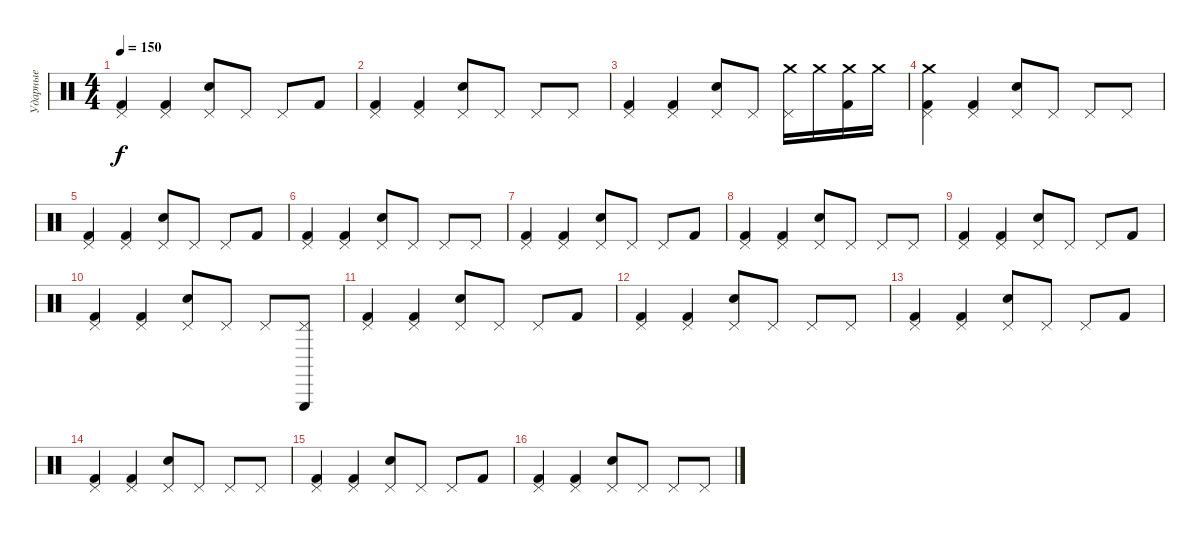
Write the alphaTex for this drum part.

\track ("Ударные" "Ударные") {instrument percussion}
\staff {score}
\articulation defaults
\ts (4 4)
\tempo 150
\clef neutral
\ks c
("Pedal Hi-Hat (hit)" "Kick (hit) 2").4{dy f} ("Pedal Hi-Hat (hit)" "Kick (hit) 2").4 ("Pedal Hi-Hat (hit)" "Snare (hit) 2").8 "Pedal Hi-Hat (hit)".8 "Pedal Hi-Hat (hit)".8 "Kick (hit) 2".8 |
("Pedal Hi-Hat (hit)" "Kick (hit) 2").4 ("Pedal Hi-Hat (hit)" "Kick (hit) 2").4 ("Pedal Hi-Hat (hit)" "Snare (hit) 2").8 "Pedal Hi-Hat (hit)".8 "Pedal Hi-Hat (hit)".8 "Pedal Hi-Hat (hit)".8 |
("Pedal Hi-Hat (hit)" "Kick (hit) 2").4 ("Pedal Hi-Hat (hit)" "Kick (hit) 2").4 ("Pedal Hi-Hat (hit)" "Snare (hit) 2").8 "Pedal Hi-Hat (hit)".8 ("Crash medium (hit)" "Pedal Hi-Hat (hit)").16 "Crash medium (hit)".16 ("Crash medium (hit)" "Kick (hit) 2").16 "Crash medium (hit)".16 |
("Crash medium (hit)" "Pedal Hi-Hat (hit)" "Kick (hit) 2").4 ("Pedal Hi-Hat (hit)" "Kick (hit) 2").4 ("Pedal Hi-Hat (hit)" "Snare (hit) 2").8 "Pedal Hi-Hat (hit)".8 "Pedal Hi-Hat (hit)".8 "Pedal Hi-Hat (hit)".8 |
("Pedal Hi-Hat (hit)" "Kick (hit) 2").4 ("Pedal Hi-Hat (hit)" "Kick (hit) 2").4 ("Pedal Hi-Hat (hit)" "Snare (hit) 2").8 "Pedal Hi-Hat (hit)".8 "Pedal Hi-Hat (hit)".8 "Kick (hit) 2".8 |
("Pedal Hi-Hat (hit)" "Kick (hit) 2").4 ("Pedal Hi-Hat (hit)" "Kick (hit) 2").4 ("Pedal Hi-Hat (hit)" "Snare (hit) 2").8 "Pedal Hi-Hat (hit)".8 "Pedal Hi-Hat (hit)".8 "Pedal Hi-Hat (hit)".8 |
("Pedal Hi-Hat (hit)" "Kick (hit) 2").4 ("Pedal Hi-Hat (hit)" "Kick (hit) 2").4 ("Pedal Hi-Hat (hit)" "Snare (hit) 2").8 "Pedal Hi-Hat (hit)".8 "Pedal Hi-Hat (hit)".8 "Kick (hit) 2".8 |
("Pedal Hi-Hat (hit)" "Kick (hit) 2").4 ("Pedal Hi-Hat (hit)" "Kick (hit) 2").4 ("Pedal Hi-Hat (hit)" "Snare (hit) 2").8 "Pedal Hi-Hat (hit)".8 "Pedal Hi-Hat (hit)".8 "Pedal Hi-Hat (hit)".8 |
("Pedal Hi-Hat (hit)" "Kick (hit) 2").4 ("Pedal Hi-Hat (hit)" "Kick (hit) 2").4 ("Pedal Hi-Hat (hit)" "Snare (hit) 2").8 "Pedal Hi-Hat (hit)".8 "Pedal Hi-Hat (hit)".8 "Kick (hit) 2".8 |
("Pedal Hi-Hat (hit)" "Kick (hit) 2").4 ("Pedal Hi-Hat (hit)" "Kick (hit) 2").4 ("Pedal Hi-Hat (hit)" "Snare (hit) 2").8 "Pedal Hi-Hat (hit)".8 "Pedal Hi-Hat (hit)".8 ("Triangle (hit)" "Pedal Hi-Hat (hit)").8 |
("Pedal Hi-Hat (hit)" "Kick (hit) 2").4 ("Pedal Hi-Hat (hit)" "Kick (hit) 2").4 ("Pedal Hi-Hat (hit)" "Snare (hit) 2").8 "Pedal Hi-Hat (hit)".8 "Pedal Hi-Hat (hit)".8 "Kick (hit) 2".8 |
("Pedal Hi-Hat (hit)" "Kick (hit) 2").4 ("Pedal Hi-Hat (hit)" "Kick (hit) 2").4 ("Pedal Hi-Hat (hit)" "Snare (hit) 2").8 "Pedal Hi-Hat (hit)".8 "Pedal Hi-Hat (hit)".8 "Pedal Hi-Hat (hit)".8 |
("Pedal Hi-Hat (hit)" "Kick (hit) 2").4 ("Pedal Hi-Hat (hit)" "Kick (hit) 2").4 ("Pedal Hi-Hat (hit)" "Snare (hit) 2").8 "Pedal Hi-Hat (hit)".8 "Pedal Hi-Hat (hit)".8 "Kick (hit) 2".8 |
("Pedal Hi-Hat (hit)" "Kick (hit) 2").4 ("Pedal Hi-Hat (hit)" "Kick (hit) 2").4 ("Pedal Hi-Hat (hit)" "Snare (hit) 2").8 "Pedal Hi-Hat (hit)".8 "Pedal Hi-Hat (hit)".8 "Pedal Hi-Hat (hit)".8 |
("Pedal Hi-Hat (hit)" "Kick (hit) 2").4 ("Pedal Hi-Hat (hit)" "Kick (hit) 2").4 ("Pedal Hi-Hat (hit)" "Snare (hit) 2").8 "Pedal Hi-Hat (hit)".8 "Pedal Hi-Hat (hit)".8 "Kick (hit) 2".8 |
("Pedal Hi-Hat (hit)" "Kick (hit) 2").4 ("Pedal Hi-Hat (hit)" "Kick (hit) 2").4 ("Pedal Hi-Hat (hit)" "Snare (hit) 2").8 "Pedal Hi-Hat (hit)".8 "Pedal Hi-Hat (hit)".8 "Pedal Hi-Hat (hit)".8
